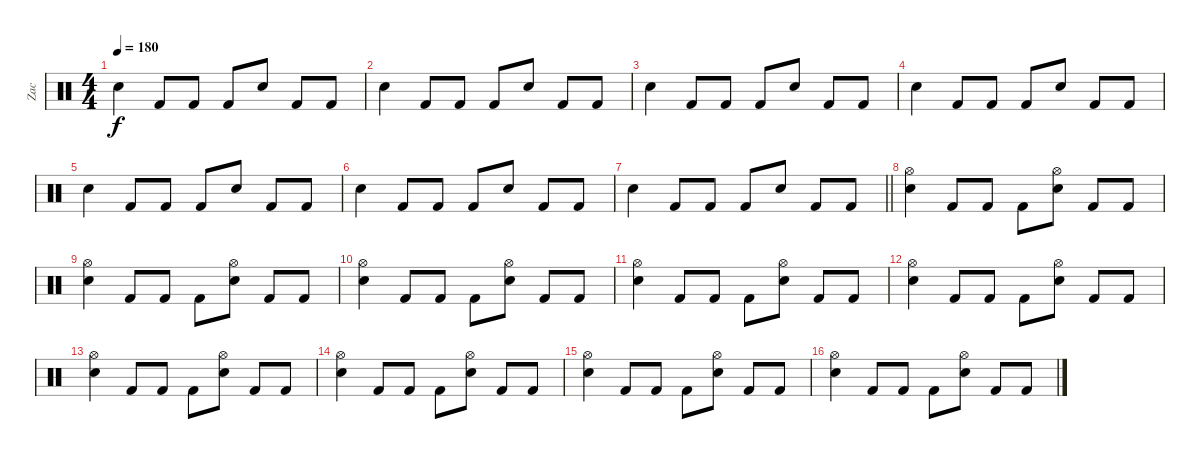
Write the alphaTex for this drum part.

\track ("Zac" "Zac") {instrument percussion}
\staff {score}
\articulation defaults
\ts (4 4)
\tempo 180
\clef neutral
\ks c "Electric Snare (hit)".4{dy f} "Kick (hit) 2".8 "Kick (hit) 2".8 "Kick (hit) 2".8 "Electric Snare (hit)".8 "Kick (hit) 2".8 "Kick (hit) 2".8
|
"Electric Snare (hit)".4 "Kick (hit) 2".8 "Kick (hit) 2".8 "Kick (hit) 2".8 "Electric Snare (hit)".8 "Kick (hit) 2".8 "Kick (hit) 2".8 |
"Electric Snare (hit)".4 "Kick (hit) 2".8 "Kick (hit) 2".8 "Kick (hit) 2".8 "Electric Snare (hit)".8 "Kick (hit) 2".8 "Kick (hit) 2".8 |
"Electric Snare (hit)".4 "Kick (hit) 2".8 "Kick (hit) 2".8 "Kick (hit) 2".8 "Electric Snare (hit)".8 "Kick (hit) 2".8 "Kick (hit) 2".8 |
"Electric Snare (hit)".4 "Kick (hit) 2".8 "Kick (hit) 2".8 "Kick (hit) 2".8 "Electric Snare (hit)".8 "Kick (hit) 2".8 "Kick (hit) 2".8 |
"Electric Snare (hit)".4 "Kick (hit) 2".8 "Kick (hit) 2".8 "Kick (hit) 2".8 "Electric Snare (hit)".8 "Kick (hit) 2".8 "Kick (hit) 2".8 |
\barLineRight lightlight "Electric Snare (hit)".4 "Kick (hit) 2".8 "Kick (hit) 2".8 "Kick (hit) 2".8 "Electric Snare (hit)".8 "Kick (hit) 2".8 "Kick (hit) 2".8
|
("Hi-Hat (open)" "Electric Snare (hit)").4 "Kick (hit) 2".8 "Kick (hit) 2".8 "Kick (hit) 2".8 ("Hi-Hat (open)" "Electric Snare (hit)").8 "Kick (hit) 2".8 "Kick (hit) 2".8 |
("Hi-Hat (open)" "Electric Snare (hit)").4 "Kick (hit) 2".8 "Kick (hit) 2".8 "Kick (hit) 2".8 ("Hi-Hat (open)" "Electric Snare (hit)").8 "Kick (hit) 2".8 "Kick (hit) 2".8 |
("Hi-Hat (open)" "Electric Snare (hit)").4 "Kick (hit) 2".8 "Kick (hit) 2".8 "Kick (hit) 2".8 ("Hi-Hat (open)" "Electric Snare (hit)").8 "Kick (hit) 2".8 "Kick (hit) 2".8 |
("Hi-Hat (open)" "Electric Snare (hit)").4 "Kick (hit) 2".8 "Kick (hit) 2".8 "Kick (hit) 2".8 ("Hi-Hat (open)" "Electric Snare (hit)").8 "Kick (hit) 2".8 "Kick (hit) 2".8 |
("Hi-Hat (open)" "Electric Snare (hit)").4 "Kick (hit) 2".8 "Kick (hit) 2".8 "Kick (hit) 2".8 ("Hi-Hat (open)" "Electric Snare (hit)").8 "Kick (hit) 2".8 "Kick (hit) 2".8 |
("Hi-Hat (open)" "Electric Snare (hit)").4 "Kick (hit) 2".8 "Kick (hit) 2".8 "Kick (hit) 2".8 ("Hi-Hat (open)" "Electric Snare (hit)").8 "Kick (hit) 2".8 "Kick (hit) 2".8 |
("Hi-Hat (open)" "Electric Snare (hit)").4 "Kick (hit) 2".8 "Kick (hit) 2".8 "Kick (hit) 2".8 ("Hi-Hat (open)" "Electric Snare (hit)").8 "Kick (hit) 2".8 "Kick (hit) 2".8 |
("Hi-Hat (open)" "Electric Snare (hit)").4 "Kick (hit) 2".8 "Kick (hit) 2".8 "Kick (hit) 2".8 ("Hi-Hat (open)" "Electric Snare (hit)").8 "Kick (hit) 2".8 "Kick (hit) 2".8 |
("Hi-Hat (open)" "Electric Snare (hit)").4 "Kick (hit) 2".8 "Kick (hit) 2".8 "Kick (hit) 2".8 ("Hi-Hat (open)" "Electric Snare (hit)").8 "Kick (hit) 2".8 "Kick (hit) 2".8
